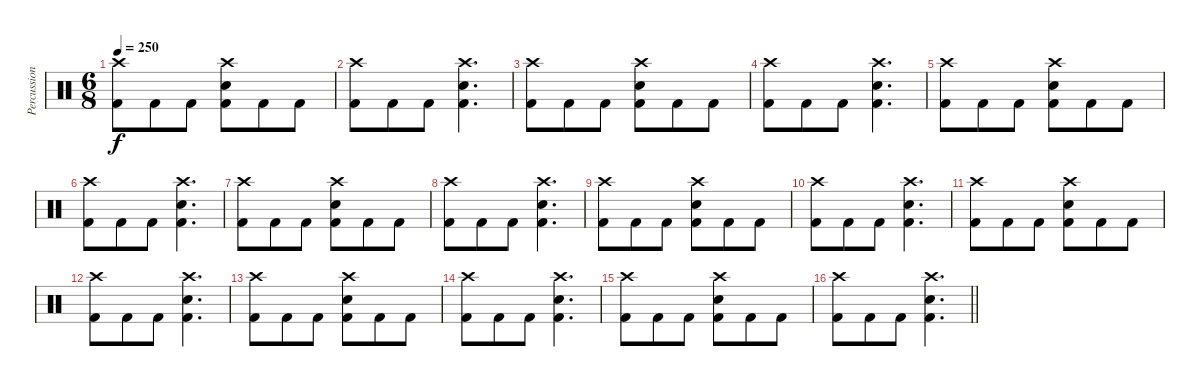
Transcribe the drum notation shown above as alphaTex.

\track ("Percussion" "Percussion") {instrument percussion}
\staff {score}
\articulation defaults
\ts (6 8)
\tempo 250
\clef neutral
\ks c
("Crash high (hit)" "Kick (hit) 2").8{dy f} "Kick (hit) 2".8 "Kick (hit) 2".8 ("Crash high (hit)" "Electric Snare (hit)" "Kick (hit) 2").8 "Kick (hit) 2".8 "Kick (hit) 2".8 |
("Crash high (hit)" "Kick (hit) 2").8 "Kick (hit) 2".8 "Kick (hit) 2".8 ("Crash high (hit)" "Electric Snare (hit)" "Kick (hit) 2").4{d} |
("Crash high (hit)" "Kick (hit) 2").8 "Kick (hit) 2".8 "Kick (hit) 2".8 ("Crash high (hit)" "Electric Snare (hit)" "Kick (hit) 2").8 "Kick (hit) 2".8 "Kick (hit) 2".8 |
("Crash high (hit)" "Kick (hit) 2").8 "Kick (hit) 2".8 "Kick (hit) 2".8 ("Crash high (hit)" "Electric Snare (hit)" "Kick (hit) 2").4{d} |
("Crash high (hit)" "Kick (hit) 2").8 "Kick (hit) 2".8 "Kick (hit) 2".8 ("Crash high (hit)" "Electric Snare (hit)" "Kick (hit) 2").8 "Kick (hit) 2".8 "Kick (hit) 2".8 |
("Crash high (hit)" "Kick (hit) 2").8 "Kick (hit) 2".8 "Kick (hit) 2".8 ("Crash high (hit)" "Electric Snare (hit)" "Kick (hit) 2").4{d} |
("Crash high (hit)" "Kick (hit) 2").8 "Kick (hit) 2".8 "Kick (hit) 2".8 ("Crash high (hit)" "Electric Snare (hit)" "Kick (hit) 2").8 "Kick (hit) 2".8 "Kick (hit) 2".8 |
("Crash high (hit)" "Kick (hit) 2").8 "Kick (hit) 2".8 "Kick (hit) 2".8 ("Crash high (hit)" "Electric Snare (hit)" "Kick (hit) 2").4{d} |
("Crash high (hit)" "Kick (hit) 2").8 "Kick (hit) 2".8 "Kick (hit) 2".8 ("Crash high (hit)" "Electric Snare (hit)" "Kick (hit) 2").8 "Kick (hit) 2".8 "Kick (hit) 2".8 |
("Crash high (hit)" "Kick (hit) 2").8 "Kick (hit) 2".8 "Kick (hit) 2".8 ("Crash high (hit)" "Electric Snare (hit)" "Kick (hit) 2").4{d} |
("Crash high (hit)" "Kick (hit) 2").8 "Kick (hit) 2".8 "Kick (hit) 2".8 ("Crash high (hit)" "Electric Snare (hit)" "Kick (hit) 2").8 "Kick (hit) 2".8 "Kick (hit) 2".8 |
("Crash high (hit)" "Kick (hit) 2").8 "Kick (hit) 2".8 "Kick (hit) 2".8 ("Crash high (hit)" "Electric Snare (hit)" "Kick (hit) 2").4{d} |
("Crash high (hit)" "Kick (hit) 2").8 "Kick (hit) 2".8 "Kick (hit) 2".8 ("Crash high (hit)" "Electric Snare (hit)" "Kick (hit) 2").8 "Kick (hit) 2".8 "Kick (hit) 2".8 |
("Crash high (hit)" "Kick (hit) 2").8 "Kick (hit) 2".8 "Kick (hit) 2".8 ("Crash high (hit)" "Electric Snare (hit)" "Kick (hit) 2").4{d} |
("Crash high (hit)" "Kick (hit) 2").8 "Kick (hit) 2".8 "Kick (hit) 2".8 ("Crash high (hit)" "Electric Snare (hit)" "Kick (hit) 2").8 "Kick (hit) 2".8 "Kick (hit) 2".8 |
\barLineRight lightlight
("Crash high (hit)" "Kick (hit) 2").8 "Kick (hit) 2".8 "Kick (hit) 2".8 ("Crash high (hit)" "Electric Snare (hit)" "Kick (hit) 2").4{d}
